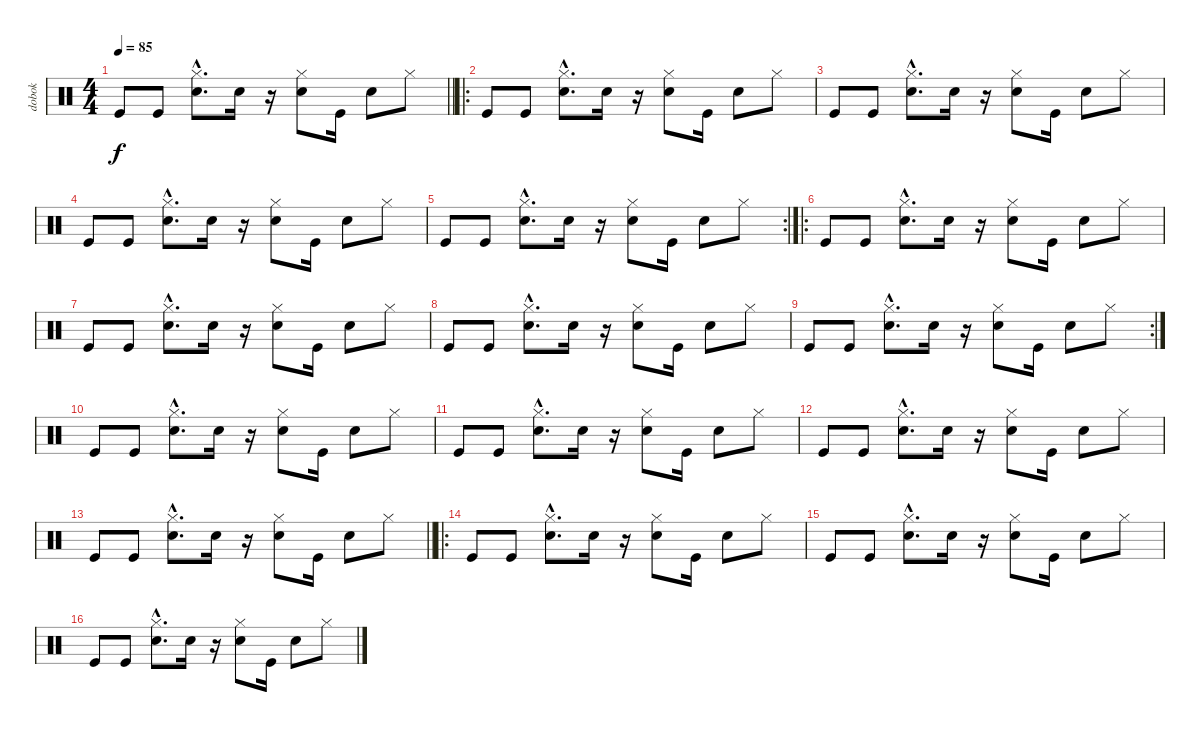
\track ("dobok" "dobok") {instrument percussion}
\staff {score}
\articulation defaults
\ts (4 4)
\tempo 85
\clef neutral
\barLineRight lightlight
\ks c "Kick (hit)".8{dy f} "Kick (hit)".8
("Hi-Hat (closed)"{hac} "Electric Snare (hit)"{hac}).8{d} "Electric Snare (hit)".16 r.16 ("Hi-Hat (closed)" "Electric Snare (hit)").8 "Kick (hit)".16 "Electric Snare (hit)".8 "Hi-Hat (closed)".8 |
\ro "Kick (hit)".8 "Kick (hit)".8
("Hi-Hat (closed)"{hac} "Electric Snare (hit)"{hac}).8{d} "Electric Snare (hit)".16 r.16 ("Hi-Hat (closed)" "Electric Snare (hit)").8 "Kick (hit)".16 "Electric Snare (hit)".8 "Hi-Hat (closed)".8 |
"Kick (hit)".8 "Kick (hit)".8 ("Hi-Hat (closed)"{hac} "Electric Snare (hit)"{hac}).8{d} "Electric Snare (hit)".16 r.16 ("Hi-Hat (closed)" "Electric Snare (hit)").8 "Kick (hit)".16 "Electric Snare (hit)".8 "Hi-Hat (closed)".8 |
"Kick (hit)".8 "Kick (hit)".8 ("Hi-Hat (closed)"{hac} "Electric Snare (hit)"{hac}).8{d} "Electric Snare (hit)".16 r.16 ("Hi-Hat (closed)" "Electric Snare (hit)").8 "Kick (hit)".16 "Electric Snare (hit)".8 "Hi-Hat (closed)".8 |
\rc 2 "Kick (hit)".8 "Kick (hit)".8
("Hi-Hat (closed)"{hac} "Electric Snare (hit)"{hac}).8{d} "Electric Snare (hit)".16 r.16 ("Hi-Hat (closed)" "Electric Snare (hit)").8 "Kick (hit)".16 "Electric Snare (hit)".8 "Hi-Hat (closed)".8 |
\ro "Kick (hit)".8 "Kick (hit)".8
("Hi-Hat (closed)"{hac} "Electric Snare (hit)"{hac}).8{d} "Electric Snare (hit)".16 r.16 ("Hi-Hat (closed)" "Electric Snare (hit)").8 "Kick (hit)".16 "Electric Snare (hit)".8 "Hi-Hat (closed)".8 |
"Kick (hit)".8 "Kick (hit)".8 ("Hi-Hat (closed)"{hac} "Electric Snare (hit)"{hac}).8{d} "Electric Snare (hit)".16 r.16 ("Hi-Hat (closed)" "Electric Snare (hit)").8 "Kick (hit)".16 "Electric Snare (hit)".8 "Hi-Hat (closed)".8 |
"Kick (hit)".8 "Kick (hit)".8 ("Hi-Hat (closed)"{hac} "Electric Snare (hit)"{hac}).8{d} "Electric Snare (hit)".16 r.16 ("Hi-Hat (closed)" "Electric Snare (hit)").8 "Kick (hit)".16 "Electric Snare (hit)".8 "Hi-Hat (closed)".8 |
\rc 2 "Kick (hit)".8 "Kick (hit)".8
("Hi-Hat (closed)"{hac} "Electric Snare (hit)"{hac}).8{d} "Electric Snare (hit)".16 r.16 ("Hi-Hat (closed)" "Electric Snare (hit)").8 "Kick (hit)".16 "Electric Snare (hit)".8 "Hi-Hat (closed)".8 |
"Kick (hit)".8 "Kick (hit)".8 ("Hi-Hat (closed)"{hac} "Electric Snare (hit)"{hac}).8{d} "Electric Snare (hit)".16 r.16 ("Hi-Hat (closed)" "Electric Snare (hit)").8 "Kick (hit)".16 "Electric Snare (hit)".8 "Hi-Hat (closed)".8 |
"Kick (hit)".8 "Kick (hit)".8 ("Hi-Hat (closed)"{hac} "Electric Snare (hit)"{hac}).8{d} "Electric Snare (hit)".16 r.16 ("Hi-Hat (closed)" "Electric Snare (hit)").8 "Kick (hit)".16 "Electric Snare (hit)".8 "Hi-Hat (closed)".8 |
"Kick (hit)".8 "Kick (hit)".8 ("Hi-Hat (closed)"{hac} "Electric Snare (hit)"{hac}).8{d} "Electric Snare (hit)".16 r.16 ("Hi-Hat (closed)" "Electric Snare (hit)").8 "Kick (hit)".16 "Electric Snare (hit)".8 "Hi-Hat (closed)".8 |
\barLineRight lightlight "Kick (hit)".8 "Kick (hit)".8
("Hi-Hat (closed)"{hac} "Electric Snare (hit)"{hac}).8{d} "Electric Snare (hit)".16 r.16 ("Hi-Hat (closed)" "Electric Snare (hit)").8 "Kick (hit)".16 "Electric Snare (hit)".8 "Hi-Hat (closed)".8 |
\ro "Kick (hit)".8 "Kick (hit)".8
("Hi-Hat (closed)"{hac} "Electric Snare (hit)"{hac}).8{d} "Electric Snare (hit)".16 r.16 ("Hi-Hat (closed)" "Electric Snare (hit)").8 "Kick (hit)".16 "Electric Snare (hit)".8 "Hi-Hat (closed)".8 |
"Kick (hit)".8 "Kick (hit)".8 ("Hi-Hat (closed)"{hac} "Electric Snare (hit)"{hac}).8{d} "Electric Snare (hit)".16 r.16 ("Hi-Hat (closed)" "Electric Snare (hit)").8 "Kick (hit)".16 "Electric Snare (hit)".8 "Hi-Hat (closed)".8 |
"Kick (hit)".8 "Kick (hit)".8 ("Hi-Hat (closed)"{hac} "Electric Snare (hit)"{hac}).8{d} "Electric Snare (hit)".16 r.16 ("Hi-Hat (closed)" "Electric Snare (hit)").8 "Kick (hit)".16 "Electric Snare (hit)".8 "Hi-Hat (closed)".8
